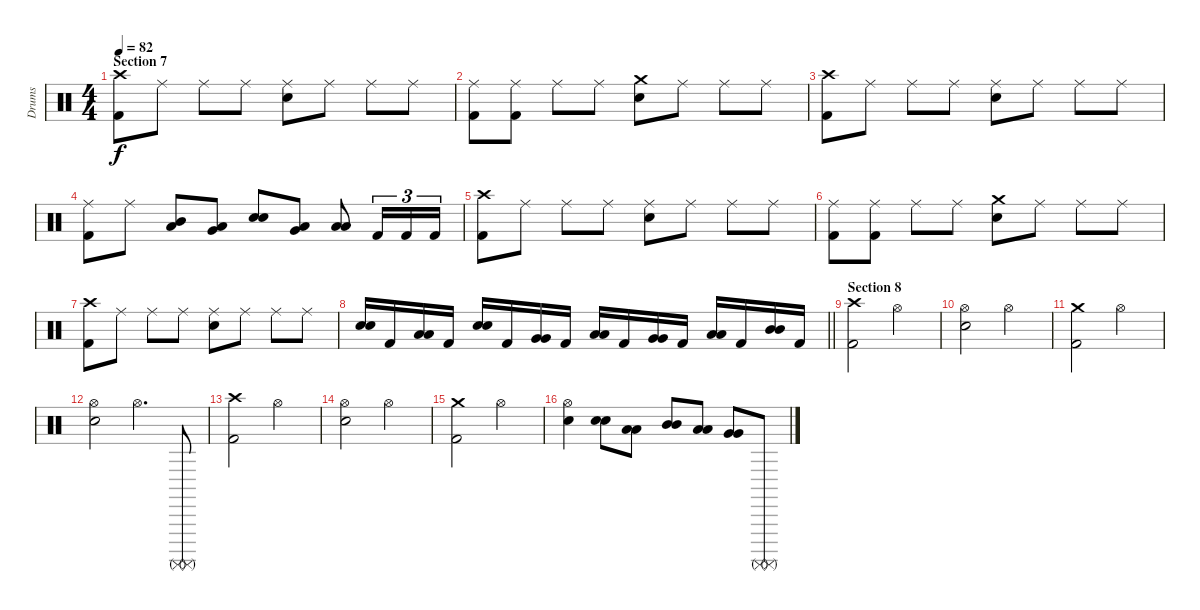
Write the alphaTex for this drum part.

\track ("Drums" "Drums") {instrument percussion}
\staff {score}
\articulation defaults
\ts (4 4)
\section ("" "Section 7")
\tempo 82
\clef neutral
\ks c
("Crash high (hit)" "Kick (hit) 2").8{dy f} "Ride (middle)".8 "Ride (middle)".8 "Ride (middle)".8 ("Ride (middle)" "Electric Snare (hit)").8 "Ride (middle)".8 "Ride (middle)".8 "Ride (middle)".8 |
("Ride (middle)" "Kick (hit) 2").8 ("Ride (middle)" "Kick (hit) 2").8 "Ride (middle)".8 "Ride (middle)".8 ("Crash medium (hit)" "Electric Snare (hit)").8 "Ride (middle)".8 "Ride (middle)".8 "Ride (middle)".8 |
("Crash high (hit)" "Kick (hit) 2").8 "Ride (middle)".8 "Ride (middle)".8 "Ride (middle)".8 ("Ride (middle)" "Electric Snare (hit)").8 "Ride (middle)".8 "Ride (middle)".8 "Ride (middle)".8 |
("Ride (middle)" "Kick (hit) 2").8 "Ride (middle)".8 ("Mid Tom (hit)" "Low Tom (hit)").8{bu 60} ("Low Tom (hit)" "Very Low Tom (hit)").8{bu 60} ("Electric Snare (hit)" "Electric Snare (hit)").8{bu 60} ("Low Tom (hit)" "Very Low Tom (hit)").8{bu 60} ("Low Floor Tom (hit)" "Low Floor Tom (hit)").8{bu 60} "Kick (hit) 2".16{tu (3 2)} "Kick (hit) 2".16{tu (3 2)} "Kick (hit) 2".16{tu (3 2)} |
("Crash high (hit)" "Kick (hit) 2").8 "Ride (middle)".8 "Ride (middle)".8 "Ride (middle)".8 ("Ride (middle)" "Electric Snare (hit)").8 "Ride (middle)".8 "Ride (middle)".8 "Ride (middle)".8 |
("Ride (middle)" "Kick (hit) 2").8 ("Ride (middle)" "Kick (hit) 2").8 "Ride (middle)".8 "Ride (middle)".8 ("Crash medium (hit)" "Electric Snare (hit)").8 "Ride (middle)".8 "Ride (middle)".8 "Ride (middle)".8 |
("Crash high (hit)" "Kick (hit) 2").8 "Ride (middle)".8 "Ride (middle)".8 "Ride (middle)".8 ("Ride (middle)" "Electric Snare (hit)").8 "Ride (middle)".8 "Ride (middle)".8 "Ride (middle)".8 |
\barLineRight lightlight
("Electric Snare (hit)" "Electric Snare (hit)").16{bu 60} "Kick (hit) 2".16 ("Low Tom (hit)" "Low Tom (hit)").16{bu 60} "Kick (hit) 2".16 ("Electric Snare (hit)" "Electric Snare (hit)").16{bu 60} "Kick (hit) 2".16 ("Very Low Tom (hit)" "Very Low Tom (hit)").16{bu 60} "Kick (hit) 2".16 ("Low Tom (hit)" "Low Tom (hit)").16{bu 60} "Kick (hit) 2".16 ("Very Low Tom (hit)" "Very Low Tom (hit)").16{bu 60} "Kick (hit) 2".16 ("Low Floor Tom (hit)" "Low Floor Tom (hit)").16{bu 60} "Kick (hit) 2".16 ("Mid Tom (hit)" "Mid Tom (hit)").16{bu 60} "Kick (hit) 2".16 |
\section ("" "Section 8")
("Crash high (hit)" "Kick (hit) 2").2 "Hi-Hat (open)".2 |
("Hi-Hat (open)" "Electric Snare (hit)").2 "Hi-Hat (open)".2 |
("Crash medium (hit)" "Kick (hit) 2").2 "Hi-Hat (open)".2 |
("Hi-Hat (open)" "Electric Snare (hit)").2 "Hi-Hat (open)".4{d} ("Surdo (mute)" "Surdo (mute)").8{bu 60} |
("Crash high (hit)" "Kick (hit) 2").2 "Hi-Hat (open)".2 |
("Hi-Hat (open)" "Electric Snare (hit)").2 "Hi-Hat (open)".2 |
("Crash medium (hit)" "Kick (hit) 2").2 "Hi-Hat (open)".2 |
("Hi-Hat (open)" "Electric Snare (hit)").4 ("Electric Snare (hit)" "Electric Snare (hit)").8{bu 60} ("Low Tom (hit)" "Low Tom (hit)").8{bu 60} ("Mid Tom (hit)" "Mid Tom (hit)").8{bu 60} ("Low Tom (hit)" "Low Tom (hit)").8{bu 60} ("Very Low Tom (hit)" "Very Low Tom (hit)").8{bu 60} ("Surdo (mute)" "Surdo (mute)").8{bu 60}
